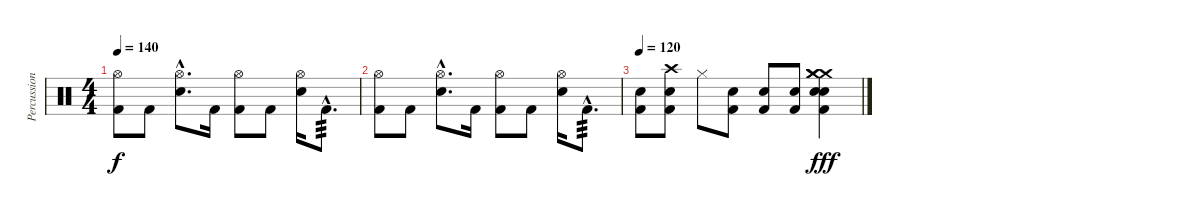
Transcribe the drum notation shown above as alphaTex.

\track ("Percussions" "Percussion") {instrument percussion}
\staff {score}
\articulation defaults
\ts (4 4)
\tempo 140
\clef neutral
\ks c
("Hi-Hat (open)" "Kick (hit) 2").8{dy f} "Kick (hit) 2".8 ("Hi-Hat (open)"{hac} "Electric Snare (hit)"{hac}).8{d} "Kick (hit) 2".16 ("Hi-Hat (open)" "Kick (hit) 2").8 "Kick (hit) 2".8 ("Hi-Hat (open)" "Electric Snare (hit)").16 "Kick (hit) 2"{hac}.8{d tp 3} |
("Hi-Hat (open)" "Kick (hit) 2").8 "Kick (hit) 2".8 ("Hi-Hat (open)"{hac} "Electric Snare (hit)"{hac}).8{d} "Kick (hit) 2".16 ("Hi-Hat (open)" "Kick (hit) 2").8 "Kick (hit) 2".8 ("Hi-Hat (open)" "Electric Snare (hit)").16 "Kick (hit) 2"{hac}.8{d tp 3} |
\tempo 120
("Snare (hit) 2" "Kick (hit) 2").8 ("Crash high (hit)" "Snare (hit) 2" "Kick (hit) 2").8 "Hi-Hat (closed)".8 ("Snare (hit) 2" "Kick (hit) 2").8 ("Snare (hit) 2" "Kick (hit) 2").8 ("Snare (hit) 2" "Kick (hit) 2").8 ("Crash medium (hit)" "Crash medium (hit)" "Crash medium (hit)" "Snare (hit) 2" "Snare (hit) 2" "Kick (hit) 2").4{dy fff}
